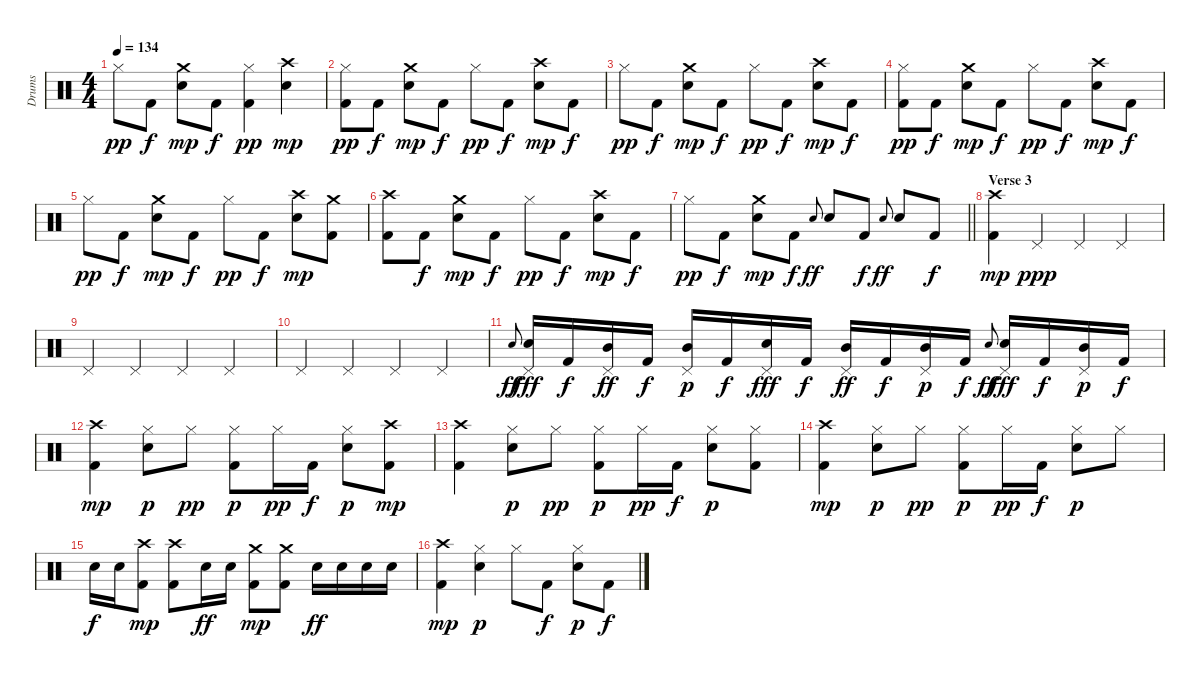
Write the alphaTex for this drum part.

\track ("Drums" "Drums") {instrument percussion}
\staff {score}
\articulation defaults
\ts (4 4)
\tempo 134
\clef neutral
\ks aminor "Hi-Hat (closed)".8{dy pp} "Kick (hit) 2".8{dy f}
("Electric Snare (hit)" "Crash medium (hit)").8{dy mp} "Kick (hit) 2".8{dy f} ("Kick (hit) 2" "Hi-Hat (closed)").4{dy pp} ("Electric Snare (hit)" "Crash high (hit)").4{dy mp} |
("Kick (hit) 2" "Hi-Hat (closed)").8{dy pp} "Kick (hit) 2".8{dy f} ("Electric Snare (hit)" "Crash medium (hit)").8{dy mp} "Kick (hit) 2".8{dy f} "Hi-Hat (closed)".8{dy pp} "Kick (hit) 2".8{dy f} ("Electric Snare (hit)" "Crash high (hit)").8{dy mp} "Kick (hit) 2".8{dy f} |
"Hi-Hat (closed)".8{dy pp} "Kick (hit) 2".8{dy f} ("Electric Snare (hit)" "Crash medium (hit)").8{dy mp} "Kick (hit) 2".8{dy f} "Hi-Hat (closed)".8{dy pp} "Kick (hit) 2".8{dy f} ("Electric Snare (hit)" "Crash high (hit)").8{dy mp} "Kick (hit) 2".8{dy f} |
("Kick (hit) 2" "Hi-Hat (closed)").8{dy pp} "Kick (hit) 2".8{dy f} ("Electric Snare (hit)" "Crash medium (hit)").8{dy mp} "Kick (hit) 2".8{dy f} "Hi-Hat (closed)".8{dy pp} "Kick (hit) 2".8{dy f} ("Electric Snare (hit)" "Crash high (hit)").8{dy mp} "Kick (hit) 2".8{dy f} |
"Hi-Hat (closed)".8{dy pp} "Kick (hit) 2".8{dy f} ("Electric Snare (hit)" "Crash medium (hit)").8{dy mp} "Kick (hit) 2".8{dy f} "Hi-Hat (closed)".8{dy pp} "Kick (hit) 2".8{dy f} ("Electric Snare (hit)" "Crash high (hit)").8{dy mp} ("Kick (hit) 2" "Crash medium (hit)").8 |
("Kick (hit) 2" "Crash high (hit)").8 "Kick (hit) 2".8{dy f} ("Electric Snare (hit)" "Crash medium (hit)").8{dy mp} "Kick (hit) 2".8{dy f} "Hi-Hat (closed)".8{dy pp} "Kick (hit) 2".8{dy f} ("Electric Snare (hit)" "Crash high (hit)").8{dy mp} "Kick (hit) 2".8{dy f} |
\barLineRight lightlight "Hi-Hat (closed)".8{dy pp} "Kick (hit) 2".8{dy f}
("Electric Snare (hit)" "Crash medium (hit)").8{dy mp} "Kick (hit) 2".8{dy f} "Electric Snare (hit)".8{gr onbeat dy ff} "Electric Snare (hit)".8 "Kick (hit) 2".8{dy f} "Electric Snare (hit)".8{gr onbeat dy ff} "Electric Snare (hit)".8 "Kick (hit) 2".8{dy f} |
\section ("" "Verse 3")
("Kick (hit) 2" "Crash high (hit)").4{dy mp} "Pedal Hi-Hat (hit)".4{dy ppp} "Pedal Hi-Hat (hit)".4 "Pedal Hi-Hat (hit)".4 |
"Pedal Hi-Hat (hit)".4 "Pedal Hi-Hat (hit)".4 "Pedal Hi-Hat (hit)".4 "Pedal Hi-Hat (hit)".4 |
"Pedal Hi-Hat (hit)".4 "Pedal Hi-Hat (hit)".4 "Pedal Hi-Hat (hit)".4 "Pedal Hi-Hat (hit)".4 |
"Electric Snare (hit)".8{gr onbeat dy ff} ("Pedal Hi-Hat (hit)" "Electric Snare (hit)").16{dy fff} "Kick (hit) 2".16{dy f} ("Pedal Hi-Hat (hit)" "Mid Tom (hit)").16{dy ff} "Kick (hit) 2".16{dy f} ("Pedal Hi-Hat (hit)" "Mid Tom (hit)").16{dy p} "Kick (hit) 2".16{dy f} ("Pedal Hi-Hat (hit)" "Electric Snare (hit)").16{dy fff} "Kick (hit) 2".16{dy f} ("Pedal Hi-Hat (hit)" "Mid Tom (hit)").16{dy ff} "Kick (hit) 2".16{dy f} ("Pedal Hi-Hat (hit)" "Mid Tom (hit)").16{dy p} "Kick (hit) 2".16{dy f} "Electric Snare (hit)".8{gr onbeat dy ff} ("Pedal Hi-Hat (hit)" "Electric Snare (hit)").16{dy fff} "Kick (hit) 2".16{dy f} ("Pedal Hi-Hat (hit)" "Mid Tom (hit)").16{dy p} "Kick (hit) 2".16{dy f} |
("Kick (hit) 2" "Crash high (hit)").4{dy mp} ("Electric Snare (hit)" "Hi-Hat (closed)").8{dy p} "Hi-Hat (closed)".8{dy pp} ("Kick (hit) 2" "Hi-Hat (closed)").8{dy p} "Hi-Hat (closed)".16{dy pp} "Kick (hit) 2".16{dy f} ("Electric Snare (hit)" "Hi-Hat (closed)").8{dy p} ("Kick (hit) 2" "Crash high (hit)").8{dy mp} |
("Kick (hit) 2" "Crash high (hit)").4 ("Electric Snare (hit)" "Hi-Hat (closed)").8{dy p} "Hi-Hat (closed)".8{dy pp} ("Kick (hit) 2" "Hi-Hat (closed)").8{dy p} "Hi-Hat (closed)".16{dy pp} "Kick (hit) 2".16{dy f} ("Electric Snare (hit)" "Hi-Hat (closed)").8{dy p} ("Kick (hit) 2" "Hi-Hat (closed)").8 |
("Kick (hit) 2" "Crash high (hit)").4{dy mp} ("Electric Snare (hit)" "Hi-Hat (closed)").8{dy p} "Hi-Hat (closed)".8{dy pp} ("Kick (hit) 2" "Hi-Hat (closed)").8{dy p} "Hi-Hat (closed)".16{dy pp} "Kick (hit) 2".16{dy f} ("Electric Snare (hit)" "Hi-Hat (closed)").8{dy p} "Hi-Hat (closed)".8 |
"Electric Snare (hit)".16{dy f} "Electric Snare (hit)".16 ("Kick (hit) 2" "Crash high (hit)").8{dy mp} ("Kick (hit) 2" "Crash high (hit)").8 "Electric Snare (hit)".16{dy ff} "Electric Snare (hit)".16 ("Kick (hit) 2" "Crash medium (hit)").8{dy mp} ("Kick (hit) 2" "Crash medium (hit)").8 "Electric Snare (hit)".16{dy ff} "Electric Snare (hit)".16 "Electric Snare (hit)".16 "Electric Snare (hit)".16 |
("Kick (hit) 2" "Crash high (hit)").4{dy mp} ("Electric Snare (hit)" "Hi-Hat (closed)").4{dy p} "Hi-Hat (closed)".8 "Kick (hit) 2".8{dy f} ("Electric Snare (hit)" "Hi-Hat (closed)").8{dy p} "Kick (hit) 2".8{dy f}
